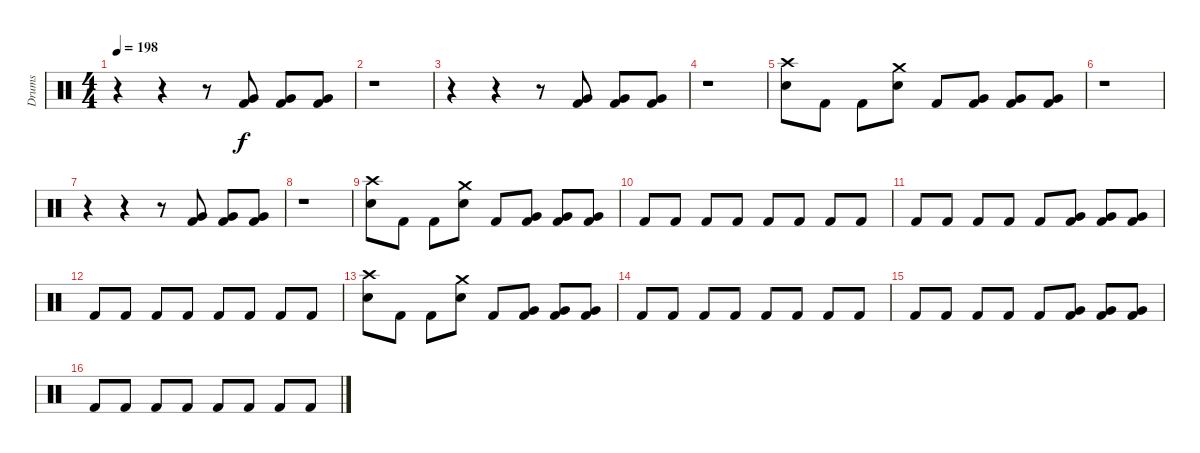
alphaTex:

\track ("Drums" "Drums") {instrument percussion}
\staff {score}
\articulation defaults
\ts (4 4)
\tempo 198
\clef neutral
\ks c
r.4{dy f} r.4 r.8 ("Very Low Tom (hit)" "Kick (hit) 2").8 ("Very Low Tom (hit)" "Kick (hit) 2").8 ("Very Low Tom (hit)" "Kick (hit) 2").8 |
r.1 |
r.4 r.4 r.8 ("Very Low Tom (hit)" "Kick (hit) 2").8 ("Very Low Tom (hit)" "Kick (hit) 2").8 ("Very Low Tom (hit)" "Kick (hit) 2").8 |
r.1 |
("Crash high (hit)" "Electric Snare (hit)").8 "Kick (hit) 2".8 "Kick (hit) 2".8 ("Crash medium (hit)" "Electric Snare (hit)").8 "Kick (hit) 2".8 ("Very Low Tom (hit)" "Kick (hit) 2").8 ("Very Low Tom (hit)" "Kick (hit) 2").8 ("Very Low Tom (hit)" "Kick (hit) 2").8 |
r.1 |
r.4 r.4 r.8 ("Very Low Tom (hit)" "Kick (hit) 2").8 ("Very Low Tom (hit)" "Kick (hit) 2").8 ("Very Low Tom (hit)" "Kick (hit) 2").8 |
r.1 |
("Crash high (hit)" "Electric Snare (hit)").8 "Kick (hit) 2".8 "Kick (hit) 2".8 ("Crash medium (hit)" "Electric Snare (hit)").8 "Kick (hit) 2".8 ("Very Low Tom (hit)" "Kick (hit) 2").8 ("Very Low Tom (hit)" "Kick (hit) 2").8 ("Very Low Tom (hit)" "Kick (hit) 2").8 |
"Kick (hit) 2".8 "Kick (hit) 2".8 "Kick (hit) 2".8 "Kick (hit) 2".8 "Kick (hit) 2".8 "Kick (hit) 2".8 "Kick (hit) 2".8 "Kick (hit) 2".8 |
"Kick (hit) 2".8 "Kick (hit) 2".8 "Kick (hit) 2".8 "Kick (hit) 2".8 "Kick (hit) 2".8 ("Very Low Tom (hit)" "Kick (hit) 2").8 ("Very Low Tom (hit)" "Kick (hit) 2").8 ("Very Low Tom (hit)" "Kick (hit) 2").8 |
"Kick (hit) 2".8 "Kick (hit) 2".8 "Kick (hit) 2".8 "Kick (hit) 2".8 "Kick (hit) 2".8 "Kick (hit) 2".8 "Kick (hit) 2".8 "Kick (hit) 2".8 |
("Crash high (hit)" "Electric Snare (hit)").8 "Kick (hit) 2".8 "Kick (hit) 2".8 ("Crash medium (hit)" "Electric Snare (hit)").8 "Kick (hit) 2".8 ("Very Low Tom (hit)" "Kick (hit) 2").8 ("Very Low Tom (hit)" "Kick (hit) 2").8 ("Very Low Tom (hit)" "Kick (hit) 2").8 |
"Kick (hit) 2".8 "Kick (hit) 2".8 "Kick (hit) 2".8 "Kick (hit) 2".8 "Kick (hit) 2".8 "Kick (hit) 2".8 "Kick (hit) 2".8 "Kick (hit) 2".8 |
"Kick (hit) 2".8 "Kick (hit) 2".8 "Kick (hit) 2".8 "Kick (hit) 2".8 "Kick (hit) 2".8 ("Very Low Tom (hit)" "Kick (hit) 2").8 ("Very Low Tom (hit)" "Kick (hit) 2").8 ("Very Low Tom (hit)" "Kick (hit) 2").8 |
"Kick (hit) 2".8 "Kick (hit) 2".8 "Kick (hit) 2".8 "Kick (hit) 2".8 "Kick (hit) 2".8 "Kick (hit) 2".8 "Kick (hit) 2".8 "Kick (hit) 2".8
